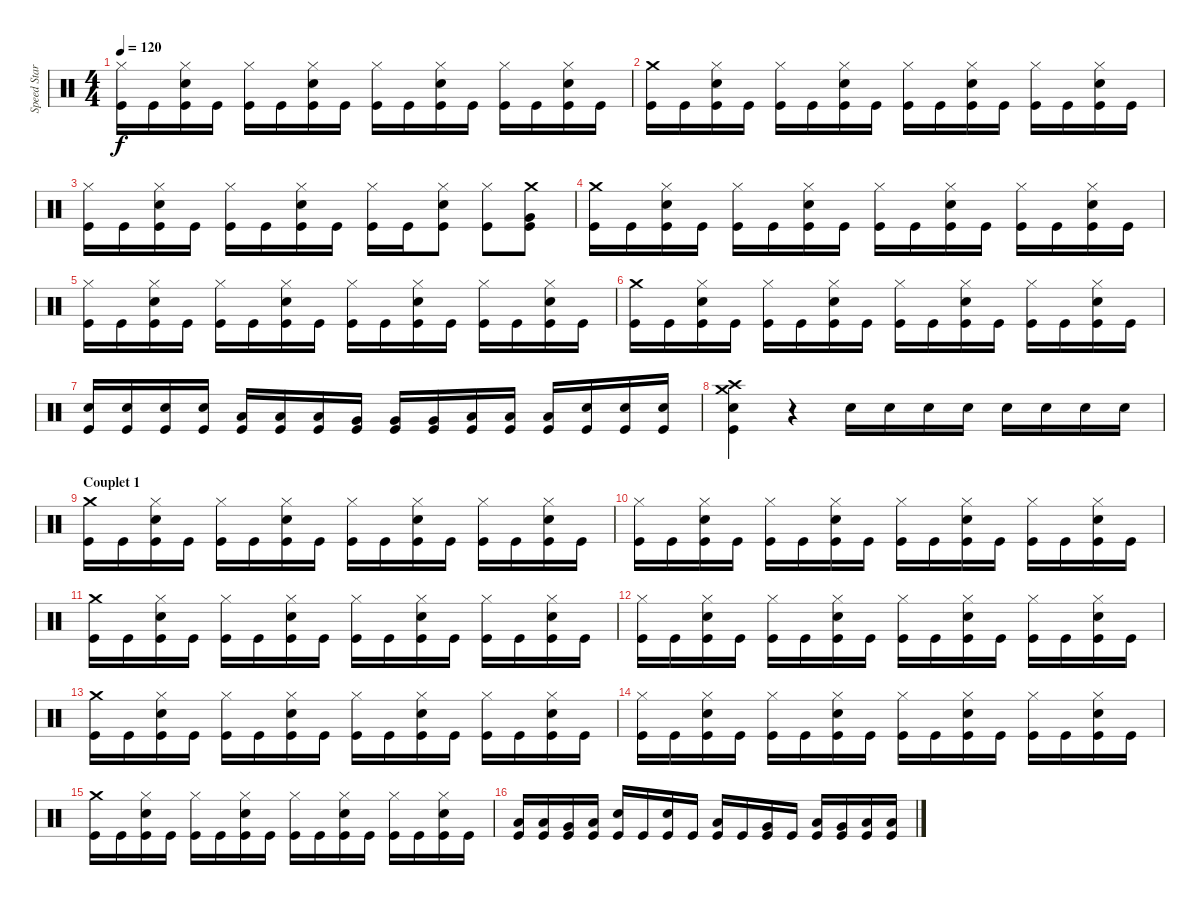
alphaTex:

\track ("Speed Star" "Speed Star") {instrument percussion}
\staff {score}
\articulation defaults
\ts (4 4)
\tempo 120
\clef neutral
\ks c
("Kick (hit)" "Hi-Hat (closed)").16{dy f} "Kick (hit)".16 ("Kick (hit)" "Snare (hit) 2" "Hi-Hat (closed)").16 "Kick (hit)".16 ("Kick (hit)" "Hi-Hat (closed)").16 "Kick (hit)".16 ("Kick (hit)" "Snare (hit) 2" "Hi-Hat (closed)").16 "Kick (hit)".16 ("Kick (hit)" "Hi-Hat (closed)").16 "Kick (hit)".16 ("Kick (hit)" "Snare (hit) 2" "Hi-Hat (closed)").16 "Kick (hit)".16 ("Kick (hit)" "Hi-Hat (closed)").16 "Kick (hit)".16 ("Kick (hit)" "Snare (hit) 2" "Hi-Hat (closed)").16 "Kick (hit)".16 |
("Kick (hit)" "Crash medium (hit)").16 "Kick (hit)".16 ("Kick (hit)" "Snare (hit) 2" "Hi-Hat (closed)").16 "Kick (hit)".16 ("Kick (hit)" "Hi-Hat (closed)").16 "Kick (hit)".16 ("Kick (hit)" "Snare (hit) 2" "Hi-Hat (closed)").16 "Kick (hit)".16 ("Kick (hit)" "Hi-Hat (closed)").16 "Kick (hit)".16 ("Kick (hit)" "Snare (hit) 2" "Hi-Hat (closed)").16 "Kick (hit)".16 ("Kick (hit)" "Hi-Hat (closed)").16 "Kick (hit)".16 ("Kick (hit)" "Snare (hit) 2" "Hi-Hat (closed)").16 "Kick (hit)".16 |
("Kick (hit)" "Hi-Hat (closed)").16 "Kick (hit)".16 ("Kick (hit)" "Snare (hit) 2" "Hi-Hat (closed)").16 "Kick (hit)".16 ("Kick (hit)" "Hi-Hat (closed)").16 "Kick (hit)".16 ("Kick (hit)" "Snare (hit) 2" "Hi-Hat (closed)").16 "Kick (hit)".16 ("Kick (hit)" "Hi-Hat (closed)").16 "Kick (hit)".16 ("Kick (hit)" "Snare (hit) 2" "Hi-Hat (closed)").8 ("Kick (hit)" "Hi-Hat (closed)").8 ("Kick (hit)" "Very Low Tom (hit)" "Crash medium (hit)").8 |
("Kick (hit)" "Crash medium (hit)").16 "Kick (hit)".16 ("Kick (hit)" "Snare (hit) 2" "Hi-Hat (closed)").16 "Kick (hit)".16 ("Kick (hit)" "Hi-Hat (closed)").16 "Kick (hit)".16 ("Kick (hit)" "Snare (hit) 2" "Hi-Hat (closed)").16 "Kick (hit)".16 ("Kick (hit)" "Hi-Hat (closed)").16 "Kick (hit)".16 ("Kick (hit)" "Snare (hit) 2" "Hi-Hat (closed)").16 "Kick (hit)".16 ("Kick (hit)" "Hi-Hat (closed)").16 "Kick (hit)".16 ("Kick (hit)" "Snare (hit) 2" "Hi-Hat (closed)").16 "Kick (hit)".16 |
("Kick (hit)" "Hi-Hat (closed)").16 "Kick (hit)".16 ("Kick (hit)" "Snare (hit) 2" "Hi-Hat (closed)").16 "Kick (hit)".16 ("Kick (hit)" "Hi-Hat (closed)").16 "Kick (hit)".16 ("Kick (hit)" "Snare (hit) 2" "Hi-Hat (closed)").16 "Kick (hit)".16 ("Kick (hit)" "Hi-Hat (closed)").16 "Kick (hit)".16 ("Kick (hit)" "Snare (hit) 2" "Hi-Hat (closed)").16 "Kick (hit)".16 ("Kick (hit)" "Hi-Hat (closed)").16 "Kick (hit)".16 ("Kick (hit)" "Snare (hit) 2" "Hi-Hat (closed)").16 "Kick (hit)".16 |
("Kick (hit)" "Crash medium (hit)").16 "Kick (hit)".16 ("Kick (hit)" "Snare (hit) 2" "Hi-Hat (closed)").16 "Kick (hit)".16 ("Kick (hit)" "Hi-Hat (closed)").16 "Kick (hit)".16 ("Kick (hit)" "Snare (hit) 2" "Hi-Hat (closed)").16 "Kick (hit)".16 ("Kick (hit)" "Hi-Hat (closed)").16 "Kick (hit)".16 ("Kick (hit)" "Snare (hit) 2" "Hi-Hat (closed)").16 "Kick (hit)".16 ("Kick (hit)" "Hi-Hat (closed)").16 "Kick (hit)".16 ("Kick (hit)" "Snare (hit) 2" "Hi-Hat (closed)").16 "Kick (hit)".16 |
("Kick (hit)" "Snare (hit) 2").16 ("Kick (hit)" "Snare (hit) 2").16 ("Kick (hit)" "Snare (hit) 2").16 ("Kick (hit)" "Snare (hit) 2").16 ("Kick (hit)" "Low Floor Tom (hit)").16 ("Kick (hit)" "Low Floor Tom (hit)").16 ("Kick (hit)" "Low Floor Tom (hit)").16 ("Kick (hit)" "Very Low Tom (hit)").16 ("Kick (hit)" "Very Low Tom (hit)").16 ("Kick (hit)" "Very Low Tom (hit)").16 ("Kick (hit)" "Low Tom (hit)").16 ("Kick (hit)" "Low Tom (hit)").16 ("Kick (hit)" "Low Tom (hit)").16 ("Kick (hit)" "Snare (hit) 2").16 ("Kick (hit)" "Snare (hit) 2").16 ("Kick (hit)" "Snare (hit) 2").16 |
("Kick (hit)" "Snare (hit) 2" "Crash high (hit)" "Crash medium (hit)").4 r.4 "Snare (hit) 2".16 "Snare (hit) 2".16 "Snare (hit) 2".16 "Snare (hit) 2".16 "Snare (hit) 2".16 "Snare (hit) 2".16 "Snare (hit) 2".16 "Snare (hit) 2".16 |
\section ("" "Couplet 1")
("Kick (hit)" "Crash medium (hit)").16 "Kick (hit)".16 ("Kick (hit)" "Snare (hit) 2" "Hi-Hat (closed)").16 "Kick (hit)".16 ("Kick (hit)" "Hi-Hat (closed)").16 "Kick (hit)".16 ("Kick (hit)" "Snare (hit) 2" "Hi-Hat (closed)").16 "Kick (hit)".16 ("Kick (hit)" "Hi-Hat (closed)").16 "Kick (hit)".16 ("Kick (hit)" "Snare (hit) 2" "Hi-Hat (closed)").16 "Kick (hit)".16 ("Kick (hit)" "Hi-Hat (closed)").16 "Kick (hit)".16 ("Kick (hit)" "Snare (hit) 2" "Hi-Hat (closed)").16 "Kick (hit)".16 |
("Kick (hit)" "Hi-Hat (closed)").16 "Kick (hit)".16 ("Kick (hit)" "Snare (hit) 2" "Hi-Hat (closed)").16 "Kick (hit)".16 ("Kick (hit)" "Hi-Hat (closed)").16 "Kick (hit)".16 ("Kick (hit)" "Snare (hit) 2" "Hi-Hat (closed)").16 "Kick (hit)".16 ("Kick (hit)" "Hi-Hat (closed)").16 "Kick (hit)".16 ("Kick (hit)" "Snare (hit) 2" "Hi-Hat (closed)").16 "Kick (hit)".16 ("Kick (hit)" "Hi-Hat (closed)").16 "Kick (hit)".16 ("Kick (hit)" "Snare (hit) 2" "Hi-Hat (closed)").16 "Kick (hit)".16 |
("Kick (hit)" "Crash medium (hit)").16 "Kick (hit)".16 ("Kick (hit)" "Snare (hit) 2" "Hi-Hat (closed)").16 "Kick (hit)".16 ("Kick (hit)" "Hi-Hat (closed)").16 "Kick (hit)".16 ("Kick (hit)" "Snare (hit) 2" "Hi-Hat (closed)").16 "Kick (hit)".16 ("Kick (hit)" "Hi-Hat (closed)").16 "Kick (hit)".16 ("Kick (hit)" "Snare (hit) 2" "Hi-Hat (closed)").16 "Kick (hit)".16 ("Kick (hit)" "Hi-Hat (closed)").16 "Kick (hit)".16 ("Kick (hit)" "Snare (hit) 2" "Hi-Hat (closed)").16 "Kick (hit)".16 |
("Kick (hit)" "Hi-Hat (closed)").16 "Kick (hit)".16 ("Kick (hit)" "Snare (hit) 2" "Hi-Hat (closed)").16 "Kick (hit)".16 ("Kick (hit)" "Hi-Hat (closed)").16 "Kick (hit)".16 ("Kick (hit)" "Snare (hit) 2" "Hi-Hat (closed)").16 "Kick (hit)".16 ("Kick (hit)" "Hi-Hat (closed)").16 "Kick (hit)".16 ("Kick (hit)" "Snare (hit) 2" "Hi-Hat (closed)").16 "Kick (hit)".16 ("Kick (hit)" "Hi-Hat (closed)").16 "Kick (hit)".16 ("Kick (hit)" "Snare (hit) 2" "Hi-Hat (closed)").16 "Kick (hit)".16 |
("Kick (hit)" "Crash medium (hit)").16 "Kick (hit)".16 ("Kick (hit)" "Snare (hit) 2" "Hi-Hat (closed)").16 "Kick (hit)".16 ("Kick (hit)" "Hi-Hat (closed)").16 "Kick (hit)".16 ("Kick (hit)" "Snare (hit) 2" "Hi-Hat (closed)").16 "Kick (hit)".16 ("Kick (hit)" "Hi-Hat (closed)").16 "Kick (hit)".16 ("Kick (hit)" "Snare (hit) 2" "Hi-Hat (closed)").16 "Kick (hit)".16 ("Kick (hit)" "Hi-Hat (closed)").16 "Kick (hit)".16 ("Kick (hit)" "Snare (hit) 2" "Hi-Hat (closed)").16 "Kick (hit)".16 |
("Kick (hit)" "Hi-Hat (closed)").16 "Kick (hit)".16 ("Kick (hit)" "Snare (hit) 2" "Hi-Hat (closed)").16 "Kick (hit)".16 ("Kick (hit)" "Hi-Hat (closed)").16 "Kick (hit)".16 ("Kick (hit)" "Snare (hit) 2" "Hi-Hat (closed)").16 "Kick (hit)".16 ("Kick (hit)" "Hi-Hat (closed)").16 "Kick (hit)".16 ("Kick (hit)" "Snare (hit) 2" "Hi-Hat (closed)").16 "Kick (hit)".16 ("Kick (hit)" "Hi-Hat (closed)").16 "Kick (hit)".16 ("Kick (hit)" "Snare (hit) 2" "Hi-Hat (closed)").16 "Kick (hit)".16 |
("Kick (hit)" "Crash medium (hit)").16 "Kick (hit)".16 ("Kick (hit)" "Snare (hit) 2" "Hi-Hat (closed)").16 "Kick (hit)".16 ("Kick (hit)" "Hi-Hat (closed)").16 "Kick (hit)".16 ("Kick (hit)" "Snare (hit) 2" "Hi-Hat (closed)").16 "Kick (hit)".16 ("Kick (hit)" "Hi-Hat (closed)").16 "Kick (hit)".16 ("Kick (hit)" "Snare (hit) 2" "Hi-Hat (closed)").16 "Kick (hit)".16 ("Kick (hit)" "Hi-Hat (closed)").16 "Kick (hit)".16 ("Kick (hit)" "Snare (hit) 2" "Hi-Hat (closed)").16 "Kick (hit)".16 |
("Kick (hit)" "Low Floor Tom (hit)").16 ("Kick (hit)" "Low Tom (hit)").16 ("Kick (hit)" "Very Low Tom (hit)").16 ("Kick (hit)" "Low Floor Tom (hit)").16 ("Kick (hit)" "Snare (hit) 2").16 "Kick (hit)".16 ("Kick (hit)" "Snare (hit) 2").16 "Kick (hit)".16 ("Kick (hit)" "Low Floor Tom (hit)").16 "Kick (hit)".16 ("Kick (hit)" "Very Low Tom (hit)").16 "Kick (hit)".16 ("Kick (hit)" "Low Tom (hit)").16 ("Kick (hit)" "Very Low Tom (hit)").16 ("Kick (hit)" "Low Floor Tom (hit)").16 ("Kick (hit)" "Low Floor Tom (hit)").16
